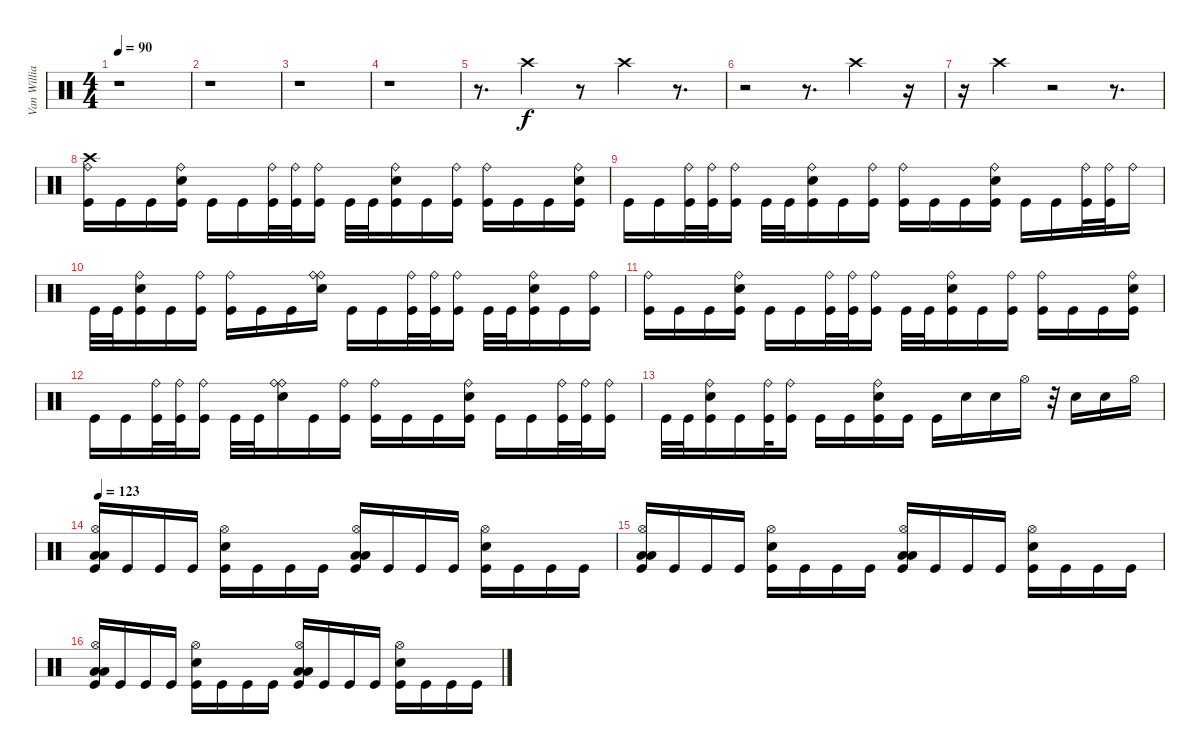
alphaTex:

\track ("Van Williams" "Van Willia") {instrument percussion}
\staff {score}
\articulation defaults
\ts (4 4)
\tempo 90
\clef neutral
\ks c
r.1{dy f} |
r.1 |
r.1 |
r.1 |
r.8{d} "Crash high (hit)".4 r.8 "Crash high (hit)".4 r.8{d} |
r.2 r.8{d} "Crash high (hit)".4 r.16 |
r.16 "Crash high (hit)".4 r.2 r.8{d} |
("Ride (bell)" "Crash high (hit)" "Kick (hit)").16 "Kick (hit)".16 "Kick (hit)".16 ("Ride (bell)" "Electric Snare (hit)" "Kick (hit)").16 "Kick (hit)".16 "Kick (hit)".16 ("Ride (bell)" "Kick (hit)").32 ("Ride (bell)" "Kick (hit)").32 ("Ride (bell)" "Kick (hit)").16 "Kick (hit)".32 "Kick (hit)".32 ("Ride (bell)" "Electric Snare (hit)" "Kick (hit)").16 "Kick (hit)".16 ("Ride (bell)" "Kick (hit)").16 ("Ride (bell)" "Kick (hit)").16 "Kick (hit)".16 "Kick (hit)".16 ("Ride (bell)" "Electric Snare (hit)" "Kick (hit)").16 |
"Kick (hit)".16 "Kick (hit)".16 ("Ride (bell)" "Kick (hit)").32 ("Ride (bell)" "Kick (hit)").32 ("Ride (bell)" "Kick (hit)").16 "Kick (hit)".32 "Kick (hit)".32 ("Ride (bell)" "Electric Snare (hit)" "Kick (hit)").16 "Kick (hit)".16 ("Ride (bell)" "Kick (hit)").16 ("Ride (bell)" "Kick (hit)").16 "Kick (hit)".16 "Kick (hit)".16 ("Ride (bell)" "Electric Snare (hit)" "Kick (hit)").16 "Kick (hit)".16 "Kick (hit)".16 ("Ride (bell)" "Kick (hit)").32 ("Ride (bell)" "Kick (hit)").32 "Ride (bell)".16 |
"Kick (hit)".32 "Kick (hit)".32 ("Ride (bell)" "Electric Snare (hit)" "Kick (hit)").16 "Kick (hit)".16 ("Ride (bell)" "Kick (hit)").16 ("Ride (bell)" "Kick (hit)").16 "Kick (hit)".16 "Kick (hit)".16 ("Ride (bell)" "Electric Snare (hit)" "Ride (bell)").16 "Kick (hit)".16 "Kick (hit)".16 ("Ride (bell)" "Kick (hit)").32 ("Ride (bell)" "Kick (hit)").32 ("Ride (bell)" "Kick (hit)").16 "Kick (hit)".32 "Kick (hit)".32 ("Ride (bell)" "Electric Snare (hit)" "Kick (hit)").16 "Kick (hit)".16 ("Ride (bell)" "Kick (hit)").16 |
("Ride (bell)" "Kick (hit)").16 "Kick (hit)".16 "Kick (hit)".16 ("Ride (bell)" "Electric Snare (hit)" "Kick (hit)").16 "Kick (hit)".16 "Kick (hit)".16 ("Ride (bell)" "Kick (hit)").32 ("Ride (bell)" "Kick (hit)").32 ("Ride (bell)" "Kick (hit)").16 "Kick (hit)".32 "Kick (hit)".32 ("Ride (bell)" "Electric Snare (hit)" "Kick (hit)").16 "Kick (hit)".16 ("Ride (bell)" "Kick (hit)").16 ("Ride (bell)" "Kick (hit)").16 "Kick (hit)".16 "Kick (hit)".16 ("Ride (bell)" "Electric Snare (hit)" "Kick (hit)").16 |
"Kick (hit)".16 "Kick (hit)".16 ("Ride (bell)" "Kick (hit)").32 ("Ride (bell)" "Kick (hit)").32 ("Ride (bell)" "Kick (hit)").16 "Kick (hit)".32 "Kick (hit)".32 ("Ride (bell)" "Electric Snare (hit)" "Ride (bell)").16 "Kick (hit)".16 ("Ride (bell)" "Kick (hit)").16 ("Ride (bell)" "Kick (hit)").16 "Kick (hit)".16 "Kick (hit)".16 ("Ride (bell)" "Electric Snare (hit)" "Kick (hit)").16 "Kick (hit)".16 "Kick (hit)".16 ("Ride (bell)" "Kick (hit)").32 ("Ride (bell)" "Kick (hit)").32 ("Ride (bell)" "Kick (hit)").16 |
"Kick (hit)".32 "Kick (hit)".32 ("Ride (bell)" "Electric Snare (hit)" "Kick (hit)").16 "Kick (hit)".16 ("Ride (bell)" "Kick (hit)").32 ("Ride (bell)" "Kick (hit)").16 "Kick (hit)".16 "Kick (hit)".16 ("Ride (bell)" "Electric Snare (hit)" "Kick (hit)").16 "Kick (hit)".16 "Kick (hit)".16 "Electric Snare (hit)".16 "Electric Snare (hit)".16 "Hi-Hat (open)".16 r.32 "Electric Snare (hit)".16 "Electric Snare (hit)".16 "Hi-Hat (open)".16 |
\tempo 123
("Hi-Hat (open)" "Low Floor Tom (hit)" "Low Floor Tom (hit)" "Kick (hit)").16 "Kick (hit)".16 "Kick (hit)".16 "Kick (hit)".16 ("Hi-Hat (open)" "Electric Snare (hit)" "Kick (hit)").16 "Kick (hit)".16 "Kick (hit)".16 "Kick (hit)".16 ("Hi-Hat (open)" "Low Floor Tom (hit)" "Low Floor Tom (hit)" "Kick (hit)").16 "Kick (hit)".16 "Kick (hit)".16 "Kick (hit)".16 ("Hi-Hat (open)" "Electric Snare (hit)" "Kick (hit)").16 "Kick (hit)".16 "Kick (hit)".16 "Kick (hit)".16 |
("Hi-Hat (open)" "Low Floor Tom (hit)" "Low Floor Tom (hit)" "Kick (hit)").16 "Kick (hit)".16 "Kick (hit)".16 "Kick (hit)".16 ("Hi-Hat (open)" "Electric Snare (hit)" "Kick (hit)").16 "Kick (hit)".16 "Kick (hit)".16 "Kick (hit)".16 ("Hi-Hat (open)" "Low Floor Tom (hit)" "Low Floor Tom (hit)" "Kick (hit)").16 "Kick (hit)".16 "Kick (hit)".16 "Kick (hit)".16 ("Hi-Hat (open)" "Electric Snare (hit)" "Kick (hit)").16 "Kick (hit)".16 "Kick (hit)".16 "Kick (hit)".16 |
("Hi-Hat (open)" "Low Floor Tom (hit)" "Low Floor Tom (hit)" "Kick (hit)").16 "Kick (hit)".16 "Kick (hit)".16 "Kick (hit)".16 ("Hi-Hat (open)" "Electric Snare (hit)" "Kick (hit)").16 "Kick (hit)".16 "Kick (hit)".16 "Kick (hit)".16 ("Hi-Hat (open)" "Low Floor Tom (hit)" "Low Floor Tom (hit)" "Kick (hit)").16 "Kick (hit)".16 "Kick (hit)".16 "Kick (hit)".16 ("Hi-Hat (open)" "Electric Snare (hit)" "Kick (hit)").16 "Kick (hit)".16 "Kick (hit)".16 "Kick (hit)".16
